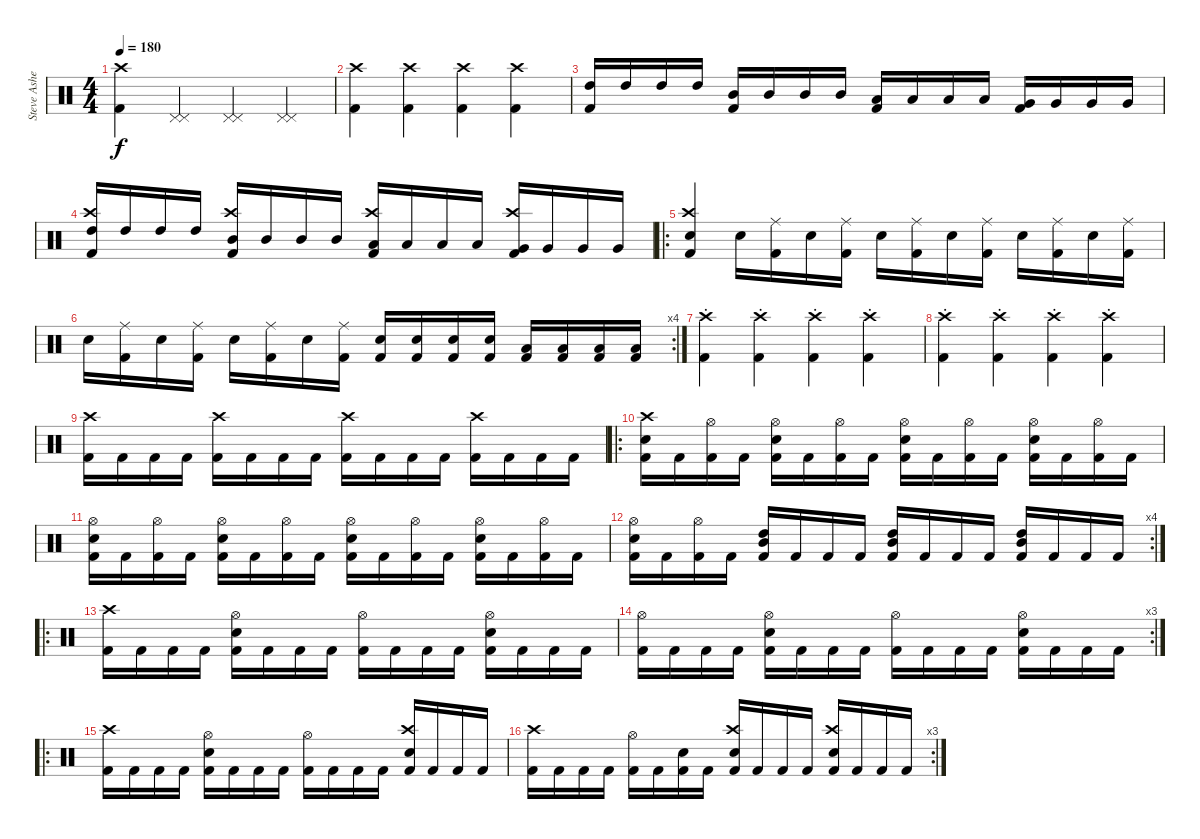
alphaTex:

\track ("Steve Asheim" "Steve Ashe") {instrument percussion}
\staff {score}
\articulation defaults
\ts (4 4)
\tempo 180
\clef neutral
\ks c
("Kick (hit) 2" "Crash high (hit)").4{dy f} ("Pedal Hi-Hat (hit)" "Pedal Hi-Hat (hit)").4 ("Pedal Hi-Hat (hit)" "Pedal Hi-Hat (hit)").4 ("Pedal Hi-Hat (hit)" "Pedal Hi-Hat (hit)").4 |
("Kick (hit) 2" "Crash high (hit)").4 ("Kick (hit) 2" "Crash high (hit)").4 ("Kick (hit) 2" "Crash high (hit)").4 ("Kick (hit) 2" "Crash high (hit)").4 |
("High Tom (hit)" "Kick (hit) 2").16 "High Tom (hit)".16 "High Tom (hit)".16 "High Tom (hit)".16 ("Mid Tom (hit)" "Kick (hit) 2").16 "Mid Tom (hit)".16 "Mid Tom (hit)".16 "Mid Tom (hit)".16 ("Low Tom (hit)" "Kick (hit) 2").16 "Low Tom (hit)".16 "Low Tom (hit)".16 "Low Tom (hit)".16 ("Very Low Tom (hit)" "Kick (hit) 2").16 "Very Low Tom (hit)".16 "Very Low Tom (hit)".16 "Very Low Tom (hit)".16 |
("Crash high (hit)" "High Tom (hit)" "Kick (hit) 2").16 "High Tom (hit)".16 "High Tom (hit)".16 "High Tom (hit)".16 ("Crash high (hit)" "Mid Tom (hit)" "Kick (hit) 2").16 "Mid Tom (hit)".16 "Mid Tom (hit)".16 "Mid Tom (hit)".16 ("Crash high (hit)" "Low Tom (hit)" "Kick (hit) 2").16 "Low Tom (hit)".16 "Low Tom (hit)".16 "Low Tom (hit)".16 ("Crash high (hit)" "Very Low Tom (hit)" "Kick (hit) 2").16 "Very Low Tom (hit)".16 "Very Low Tom (hit)".16 "Very Low Tom (hit)".16 |
\ro
("Kick (hit) 2" "Electric Snare (hit)" "Crash high (hit)").4 "Electric Snare (hit)".16 ("Kick (hit) 2" "Ride (middle)").16 "Electric Snare (hit)".16 ("Kick (hit) 2" "Ride (middle)").16 "Electric Snare (hit)".16 ("Kick (hit) 2" "Ride (middle)").16 "Electric Snare (hit)".16 ("Kick (hit) 2" "Ride (middle)").16 "Electric Snare (hit)".16 ("Kick (hit) 2" "Ride (middle)").16 "Electric Snare (hit)".16 ("Kick (hit) 2" "Ride (middle)").16 |
\rc 4 "Electric Snare (hit)".16
("Kick (hit) 2" "Ride (middle)").16 "Electric Snare (hit)".16 ("Kick (hit) 2" "Ride (middle)").16 "Electric Snare (hit)".16 ("Kick (hit) 2" "Ride (middle)").16 "Electric Snare (hit)".16 ("Kick (hit) 2" "Ride (middle)").16 ("Kick (hit) 2" "Electric Snare (hit)").16 ("Kick (hit) 2" "Electric Snare (hit)").16 ("Kick (hit) 2" "Electric Snare (hit)").16 ("Kick (hit) 2" "Electric Snare (hit)").16 ("Kick (hit) 2" "Low Tom (hit)").16 ("Kick (hit) 2" "Low Tom (hit)").16 ("Kick (hit) 2" "Low Tom (hit)").16 ("Kick (hit) 2" "Low Tom (hit)").16 |
("Kick (hit) 2"{st} "Crash high (hit)"{st}).4 ("Kick (hit) 2"{st} "Crash high (hit)"{st}).4 ("Kick (hit) 2"{st} "Crash high (hit)"{st}).4 ("Kick (hit) 2"{st} "Crash high (hit)"{st}).4 |
("Kick (hit) 2"{st} "Crash high (hit)"{st}).4 ("Kick (hit) 2"{st} "Crash high (hit)"{st}).4 ("Kick (hit) 2"{st} "Crash high (hit)"{st}).4 ("Kick (hit) 2"{st} "Crash high (hit)"{st}).4 |
("Kick (hit) 2" "Crash high (hit)").16 "Kick (hit) 2".16 "Kick (hit) 2".16 "Kick (hit) 2".16 ("Kick (hit) 2" "Crash high (hit)").16 "Kick (hit) 2".16 "Kick (hit) 2".16 "Kick (hit) 2".16 ("Kick (hit) 2" "Crash high (hit)").16 "Kick (hit) 2".16 "Kick (hit) 2".16 "Kick (hit) 2".16 ("Kick (hit) 2" "Crash high (hit)").16 "Kick (hit) 2".16 "Kick (hit) 2".16 "Kick (hit) 2".16 |
\ro
("Kick (hit) 2" "Electric Snare (hit)" "Crash high (hit)").16 "Kick (hit) 2".16 ("Kick (hit) 2" "Hi-Hat (open)").16 "Kick (hit) 2".16 ("Kick (hit) 2" "Electric Snare (hit)" "Hi-Hat (open)").16 "Kick (hit) 2".16 ("Kick (hit) 2" "Hi-Hat (open)").16 "Kick (hit) 2".16 ("Kick (hit) 2" "Electric Snare (hit)" "Hi-Hat (open)").16 "Kick (hit) 2".16 ("Kick (hit) 2" "Hi-Hat (open)").16 "Kick (hit) 2".16 ("Kick (hit) 2" "Electric Snare (hit)" "Hi-Hat (open)").16 "Kick (hit) 2".16 ("Kick (hit) 2" "Hi-Hat (open)").16 "Kick (hit) 2".16 |
("Kick (hit) 2" "Electric Snare (hit)" "Hi-Hat (open)").16 "Kick (hit) 2".16 ("Kick (hit) 2" "Hi-Hat (open)").16 "Kick (hit) 2".16 ("Kick (hit) 2" "Electric Snare (hit)" "Hi-Hat (open)").16 "Kick (hit) 2".16 ("Kick (hit) 2" "Hi-Hat (open)").16 "Kick (hit) 2".16 ("Kick (hit) 2" "Electric Snare (hit)" "Hi-Hat (open)").16 "Kick (hit) 2".16 ("Kick (hit) 2" "Hi-Hat (open)").16 "Kick (hit) 2".16 ("Kick (hit) 2" "Electric Snare (hit)" "Hi-Hat (open)").16 "Kick (hit) 2".16 ("Kick (hit) 2" "Hi-Hat (open)").16 "Kick (hit) 2".16 |
\rc 4
("Kick (hit) 2" "Electric Snare (hit)" "Hi-Hat (open)").16 "Kick (hit) 2".16 ("Kick (hit) 2" "Hi-Hat (open)").16 "Kick (hit) 2".16 ("Kick (hit) 2" "High Tom (hit)" "Mid Tom (hit)").16{bu 120} "Kick (hit) 2".16 "Kick (hit) 2".16 "Kick (hit) 2".16 ("Kick (hit) 2" "High Tom (hit)" "Mid Tom (hit)").16{bu 120} "Kick (hit) 2".16 "Kick (hit) 2".16 "Kick (hit) 2".16 ("Kick (hit) 2" "Mid Tom (hit)" "High Tom (hit)").16{bu 120} "Kick (hit) 2".16 "Kick (hit) 2".16 "Kick (hit) 2".16 |
\ro
("Crash high (hit)" "Kick (hit) 2").16 "Kick (hit) 2".16 "Kick (hit) 2".16 "Kick (hit) 2".16 ("Hi-Hat (open)" "Electric Snare (hit)" "Kick (hit) 2").16 "Kick (hit) 2".16 "Kick (hit) 2".16 "Kick (hit) 2".16 ("Hi-Hat (open)" "Kick (hit) 2").16 "Kick (hit) 2".16 "Kick (hit) 2".16 "Kick (hit) 2".16 ("Hi-Hat (open)" "Electric Snare (hit)" "Kick (hit) 2").16 "Kick (hit) 2".16 "Kick (hit) 2".16 "Kick (hit) 2".16 |
\rc 3
("Hi-Hat (open)" "Kick (hit) 2").16 "Kick (hit) 2".16 "Kick (hit) 2".16 "Kick (hit) 2".16 ("Hi-Hat (open)" "Electric Snare (hit)" "Kick (hit) 2").16 "Kick (hit) 2".16 "Kick (hit) 2".16 "Kick (hit) 2".16 ("Hi-Hat (open)" "Kick (hit) 2").16 "Kick (hit) 2".16 "Kick (hit) 2".16 "Kick (hit) 2".16 ("Hi-Hat (open)" "Electric Snare (hit)" "Kick (hit) 2").16 "Kick (hit) 2".16 "Kick (hit) 2".16 "Kick (hit) 2".16 |
\ro
("Crash high (hit)" "Kick (hit) 2").16 "Kick (hit) 2".16 "Kick (hit) 2".16 "Kick (hit) 2".16 ("Hi-Hat (open)" "Electric Snare (hit)" "Kick (hit) 2").16 "Kick (hit) 2".16 "Kick (hit) 2".16 "Kick (hit) 2".16 ("Hi-Hat (open)" "Kick (hit) 2").16 "Kick (hit) 2".16 "Kick (hit) 2".16 "Kick (hit) 2".16 ("Crash high (hit)" "Electric Snare (hit)" "Kick (hit) 2").16 "Kick (hit) 2".16 "Kick (hit) 2".16 "Kick (hit) 2".16 |
\rc 3
("Crash high (hit)" "Kick (hit) 2").16 "Kick (hit) 2".16 "Kick (hit) 2".16 "Kick (hit) 2".16 ("Hi-Hat (open)" "Kick (hit) 2").16 "Kick (hit) 2".16 ("Electric Snare (hit)" "Kick (hit) 2").16 "Kick (hit) 2".16 ("Crash high (hit)" "Electric Snare (hit)" "Kick (hit) 2").16 "Kick (hit) 2".16 "Kick (hit) 2".16 "Kick (hit) 2".16 ("Crash high (hit)" "Electric Snare (hit)" "Kick (hit) 2").16 "Kick (hit) 2".16 "Kick (hit) 2".16 "Kick (hit) 2".16
